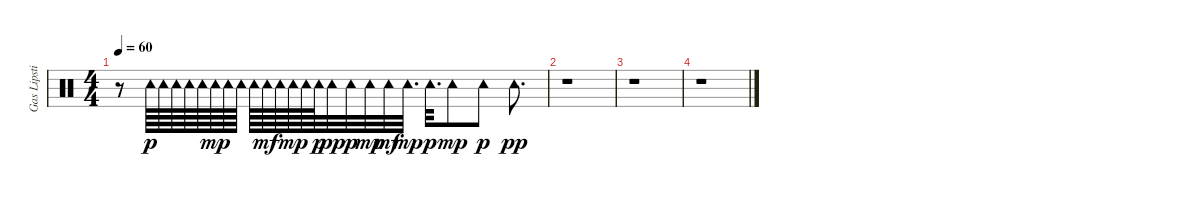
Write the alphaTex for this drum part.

\track ("Gas Lipstick (Drums)" "Gas Lipsti") {instrument percussion}
\staff {score}
\articulation defaults
\ts (4 4)
\tempo 60
\clef neutral
\ks c
r.8{dy f volume 0} "Tambourine (hit)".64{dy p} "Tambourine (hit)".64 "Tambourine (hit)".64 "Tambourine (hit)".64 "Tambourine (hit)".64 "Tambourine (hit)".64{dy mp} "Tambourine (hit)".64 "Tambourine (hit)".64 "Tambourine (hit)".64 "Tambourine (hit)".64{dy mf} "Tambourine (hit)".64 "Tambourine (hit)".64{dy mp} "Tambourine (hit)".64 "Tambourine (hit)".64{dy p} "Tambourine (hit)".32{dy pp} "Tambourine (hit)".32{dy p} "Tambourine (hit)".32{dy mp} "Tambourine (hit)".32{dy mf} "Tambourine (hit)".32{d dy mp} "Tambourine (hit)".32{d dy p} "Tambourine (hit)".8{dy mp} "Tambourine (hit)".8{dy p} "Tambourine (hit)".8{d dy pp} |
r.1 |
r.1 |
r.1
